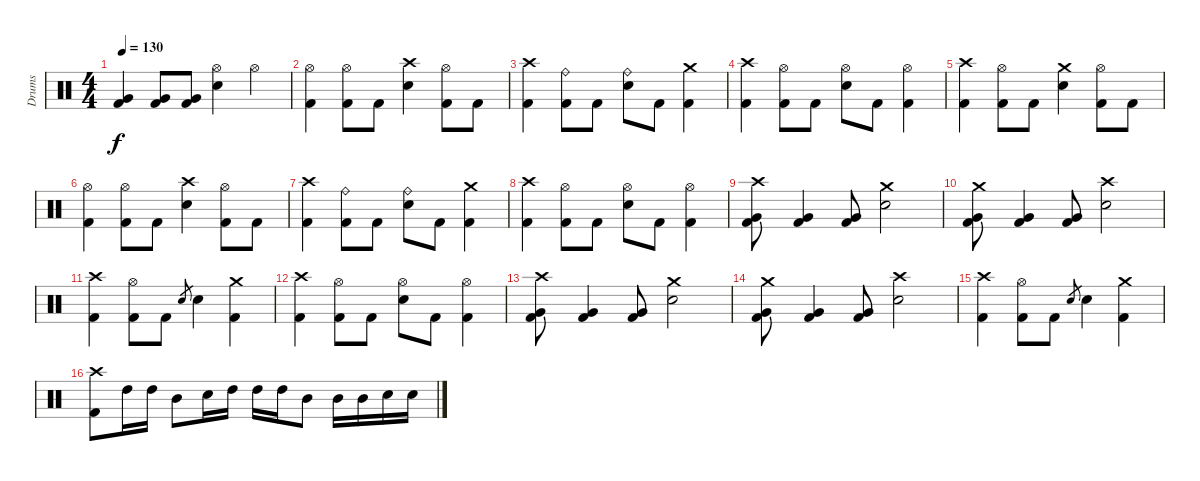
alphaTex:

\track ("Drums" "Drums") {instrument percussion}
\staff {score}
\articulation defaults
\ts (4 4)
\tempo 130
\clef neutral
\ks c
("Very Low Tom (hit)" "Kick (hit) 2").4{dy f} ("Very Low Tom (hit)" "Kick (hit) 2").8 ("Very Low Tom (hit)" "Kick (hit) 2").8 ("Hi-Hat (open)" "Electric Snare (hit)").4 "Hi-Hat (open)".4 |
("Hi-Hat (open)" "Kick (hit) 2").4 ("Hi-Hat (open)" "Kick (hit) 2").8 "Kick (hit) 2".8 ("Crash high (hit)" "Electric Snare (hit)").4 ("Hi-Hat (open)" "Kick (hit) 2").8 "Kick (hit) 2".8 |
("Crash high (hit)" "Kick (hit) 2").4 ("Ride (bell)" "Kick (hit) 2").8 "Kick (hit) 2".8 ("Ride (bell)" "Electric Snare (hit)").8 "Kick (hit) 2".8 ("Crash medium (hit)" "Kick (hit) 2").4 |
("Crash high (hit)" "Kick (hit) 2").4 ("Hi-Hat (open)" "Kick (hit) 2").8 "Kick (hit) 2".8 ("Hi-Hat (open)" "Electric Snare (hit)").8 "Kick (hit) 2".8 ("Hi-Hat (open)" "Kick (hit) 2").4 |
("Crash high (hit)" "Kick (hit) 2").4 ("Hi-Hat (open)" "Kick (hit) 2").8 "Kick (hit) 2".8 ("Crash medium (hit)" "Electric Snare (hit)").4 ("Hi-Hat (open)" "Kick (hit) 2").8 "Kick (hit) 2".8 |
("Hi-Hat (open)" "Kick (hit) 2").4 ("Hi-Hat (open)" "Kick (hit) 2").8 "Kick (hit) 2".8 ("Crash high (hit)" "Electric Snare (hit)").4 ("Hi-Hat (open)" "Kick (hit) 2").8 "Kick (hit) 2".8 |
("Crash high (hit)" "Kick (hit) 2").4 ("Ride (bell)" "Kick (hit) 2").8 "Kick (hit) 2".8 ("Ride (bell)" "Electric Snare (hit)").8 "Kick (hit) 2".8 ("Crash medium (hit)" "Kick (hit) 2").4 |
("Crash high (hit)" "Kick (hit) 2").4 ("Hi-Hat (open)" "Kick (hit) 2").8 "Kick (hit) 2".8 ("Hi-Hat (open)" "Electric Snare (hit)").8 "Kick (hit) 2".8 ("Hi-Hat (open)" "Kick (hit) 2").4 |
("Crash high (hit)" "Very Low Tom (hit)" "Kick (hit) 2").8 ("Very Low Tom (hit)" "Kick (hit) 2").4 ("Very Low Tom (hit)" "Kick (hit) 2").8 ("Crash medium (hit)" "Electric Snare (hit)").2 |
("Crash medium (hit)" "Very Low Tom (hit)" "Kick (hit) 2").8 ("Very Low Tom (hit)" "Kick (hit) 2").4 ("Very Low Tom (hit)" "Kick (hit) 2").8 ("Crash high (hit)" "Electric Snare (hit)").2 |
("Crash high (hit)" "Kick (hit) 2").4 ("Hi-Hat (open)" "Kick (hit) 2").8 "Kick (hit) 2".8 "Electric Snare (hit)".8{gr} "Electric Snare (hit)".4 ("Crash medium (hit)" "Kick (hit) 2").4 |
("Crash high (hit)" "Kick (hit) 2").4 ("Hi-Hat (open)" "Kick (hit) 2").8 "Kick (hit) 2".8 ("Hi-Hat (open)" "Electric Snare (hit)").8 "Kick (hit) 2".8 ("Hi-Hat (open)" "Kick (hit) 2").4 |
("Crash high (hit)" "Very Low Tom (hit)" "Kick (hit) 2").8 ("Very Low Tom (hit)" "Kick (hit) 2").4 ("Very Low Tom (hit)" "Kick (hit) 2").8 ("Crash medium (hit)" "Electric Snare (hit)").2 |
("Crash medium (hit)" "Very Low Tom (hit)" "Kick (hit) 2").8 ("Very Low Tom (hit)" "Kick (hit) 2").4 ("Very Low Tom (hit)" "Kick (hit) 2").8 ("Crash high (hit)" "Electric Snare (hit)").2 |
("Crash high (hit)" "Kick (hit) 2").4 ("Hi-Hat (open)" "Kick (hit) 2").8 "Kick (hit) 2".8 "Electric Snare (hit)".8{gr} "Electric Snare (hit)".4 ("Crash medium (hit)" "Kick (hit) 2").4 |
("Crash high (hit)" "Kick (hit) 2").8 "High Tom (hit)".16 "High Tom (hit)".16 "Mid Tom (hit)".8 "Electric Snare (hit)".16 "High Tom (hit)".16 "High Tom (hit)".16 "High Tom (hit)".16 "Mid Tom (hit)".8 "Mid Tom (hit)".16 "Mid Tom (hit)".16 "Electric Snare (hit)".16 "Electric Snare (hit)".16
